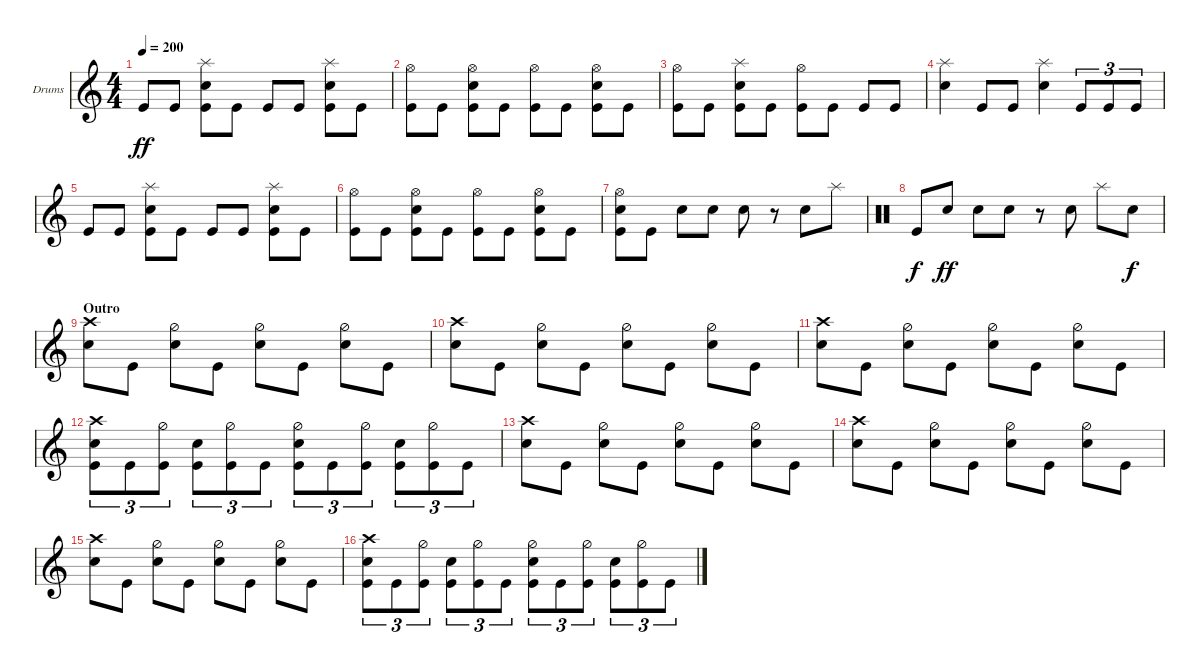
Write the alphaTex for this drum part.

\defaultSystemsLayout 4
\bracketExtendMode groupsimilarinstruments
\firstSystemTrackNameOrientation horizontal
\otherSystemsTrackNameOrientation horizontal
\track ("Drums" "Drums") {instrument percussion}
\staff {score}
\articulation defaults
\ts (4 4)
\tempo 200
\clef g2
\ks c "Kick (hit)".8{dy ff} "Kick (hit)".8
("Snare (hit) 2" "Splash (hit)" "Kick (hit)").8 "Kick (hit)".8 "Kick (hit)".8 "Kick (hit)".8 ("Kick (hit)" "Snare (hit) 2" "Splash (hit)").8 "Kick (hit)".8 |
("Kick (hit)" "Hi-Hat (open)").8 "Kick (hit)".8 ("Kick (hit)" "Hi-Hat (open)" "Snare (hit) 2").8 "Kick (hit)".8 ("Kick (hit)" "Hi-Hat (open)").8 "Kick (hit)".8 ("Kick (hit)" "Hi-Hat (open)" "Snare (hit) 2").8 "Kick (hit)".8 |
("Kick (hit)" "Hi-Hat (open)").8 "Kick (hit)".8 ("Kick (hit)" "Snare (hit) 2" "Splash (hit)").8 "Kick (hit)".8 ("Kick (hit)" "Hi-Hat (open)").8 "Kick (hit)".8 "Kick (hit)".8 "Kick (hit)".8 |
("Snare (hit) 2" "Splash (hit)").4 "Kick (hit)".8 "Kick (hit)".8 ("Snare (hit) 2" "Splash (hit)").4 "Kick (hit)".8{tu (3 2)} "Kick (hit)".8{tu (3 2)} "Kick (hit)".8{tu (3 2)} |
"Kick (hit)".8 "Kick (hit)".8 ("Snare (hit) 2" "Splash (hit)" "Kick (hit)").8 "Kick (hit)".8 "Kick (hit)".8 "Kick (hit)".8 ("Kick (hit)" "Snare (hit) 2" "Splash (hit)").8 "Kick (hit)".8 |
("Kick (hit)" "Hi-Hat (open)").8 "Kick (hit)".8 ("Kick (hit)" "Hi-Hat (open)" "Snare (hit) 2").8 "Kick (hit)".8 ("Kick (hit)" "Hi-Hat (open)").8 "Kick (hit)".8 ("Kick (hit)" "Hi-Hat (open)" "Snare (hit) 2").8 "Kick (hit)".8 |
("Kick (hit)" "Hi-Hat (open)" "Snare (hit) 2").8 "Kick (hit)".8 "Snare (hit) 2".8 "Snare (hit) 2".8 "Snare (hit) 2".8 r.8 "Snare (hit) 2".8 "Splash (hit)".8 |
\clef neutral "Kick (hit)".8{dy f} "Snare (hit) 2".8{dy ff} "Snare (hit) 2".8 "Snare (hit) 2".8
r.8 "Snare (hit) 2".8 "Splash (hit)".8 "Snare (hit) 2".8{dy f} |
\section ("" "Outro")
\clef g2
("Snare (hit) 2" "Crash high (hit)").8 "Kick (hit)".8 ("Snare (hit) 2" "Hi-Hat (half)").8 "Kick (hit)".8 ("Snare (hit) 2" "Hi-Hat (half)").8 "Kick (hit)".8 ("Snare (hit) 2" "Hi-Hat (half)").8 "Kick (hit)".8 |
("Snare (hit) 2" "Crash high (hit)").8 "Kick (hit)".8 ("Snare (hit) 2" "Hi-Hat (half)").8 "Kick (hit)".8 ("Snare (hit) 2" "Hi-Hat (half)").8 "Kick (hit)".8 ("Snare (hit) 2" "Hi-Hat (half)").8 "Kick (hit)".8 |
("Snare (hit) 2" "Crash high (hit)").8 "Kick (hit)".8 ("Snare (hit) 2" "Hi-Hat (half)").8 "Kick (hit)".8 ("Snare (hit) 2" "Hi-Hat (half)").8 "Kick (hit)".8 ("Snare (hit) 2" "Hi-Hat (half)").8 "Kick (hit)".8 |
("Snare (hit) 2" "Crash high (hit)" "Kick (hit)").8{tu (3 2)} "Kick (hit)".8{tu (3 2)} ("Hi-Hat (half)" "Kick (hit)").8{tu (3 2)} ("Kick (hit)" "Snare (hit) 2").8{tu (3 2)} ("Hi-Hat (half)" "Kick (hit)").8{tu (3 2)} "Kick (hit)".8{tu (3 2)} ("Snare (hit) 2" "Kick (hit)" "Hi-Hat (half)").8{tu (3 2)} "Kick (hit)".8{tu (3 2)} ("Hi-Hat (half)" "Kick (hit)").8{tu (3 2)} ("Kick (hit)" "Snare (hit) 2").8{tu (3 2)} ("Hi-Hat (half)" "Kick (hit)").8{tu (3 2)} "Kick (hit)".8{tu (3 2)} |
("Snare (hit) 2" "Crash high (hit)").8 "Kick (hit)".8 ("Snare (hit) 2" "Hi-Hat (half)").8 "Kick (hit)".8 ("Snare (hit) 2" "Hi-Hat (half)").8 "Kick (hit)".8 ("Snare (hit) 2" "Hi-Hat (half)").8 "Kick (hit)".8 |
("Snare (hit) 2" "Crash high (hit)").8 "Kick (hit)".8 ("Snare (hit) 2" "Hi-Hat (half)").8 "Kick (hit)".8 ("Snare (hit) 2" "Hi-Hat (half)").8 "Kick (hit)".8 ("Snare (hit) 2" "Hi-Hat (half)").8 "Kick (hit)".8 |
("Snare (hit) 2" "Crash high (hit)").8 "Kick (hit)".8 ("Snare (hit) 2" "Hi-Hat (half)").8 "Kick (hit)".8 ("Snare (hit) 2" "Hi-Hat (half)").8 "Kick (hit)".8 ("Snare (hit) 2" "Hi-Hat (half)").8 "Kick (hit)".8 |
("Snare (hit) 2" "Crash high (hit)" "Kick (hit)").8{tu (3 2)} "Kick (hit)".8{tu (3 2)} ("Hi-Hat (half)" "Kick (hit)").8{tu (3 2)} ("Kick (hit)" "Snare (hit) 2").8{tu (3 2)} ("Hi-Hat (half)" "Kick (hit)").8{tu (3 2)} "Kick (hit)".8{tu (3 2)} ("Snare (hit) 2" "Kick (hit)" "Hi-Hat (half)").8{tu (3 2)} "Kick (hit)".8{tu (3 2)} ("Hi-Hat (half)" "Kick (hit)").8{tu (3 2)} ("Kick (hit)" "Snare (hit) 2").8{tu (3 2)} ("Hi-Hat (half)" "Kick (hit)").8{tu (3 2)} "Kick (hit)".8{tu (3 2)}
